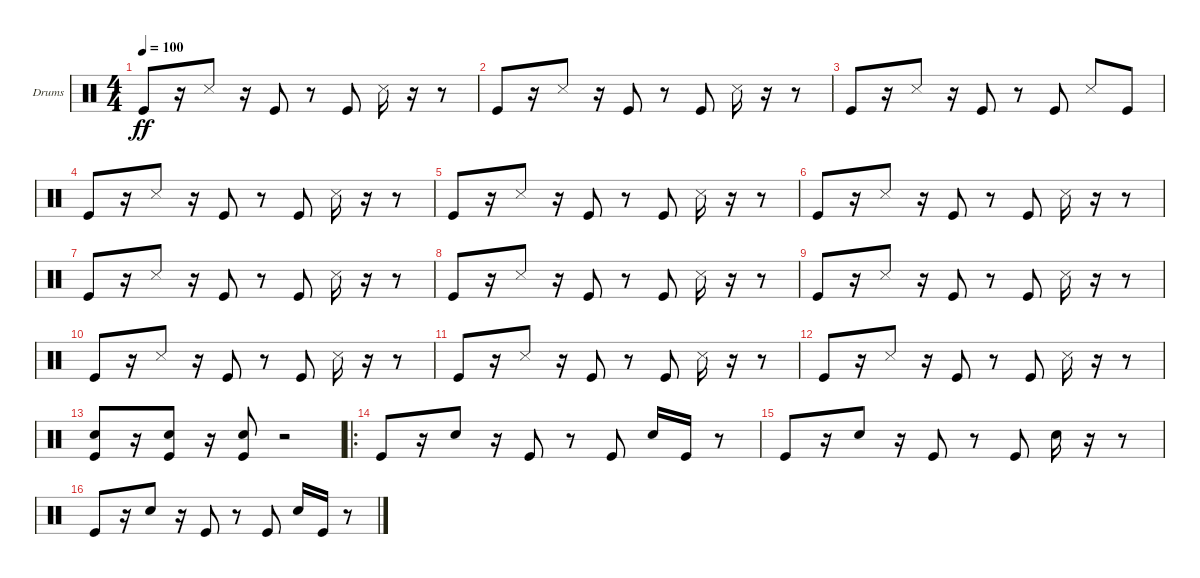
\defaultSystemsLayout 4
\bracketExtendMode groupsimilarinstruments
\firstSystemTrackNameOrientation horizontal
\otherSystemsTrackNameOrientation horizontal
\track ("Drumkit 1" "Drums") {instrument percussion}
\staff {score}
\articulation defaults
\ts (4 4)
\tempo 100
\clef neutral
\ks c "Kick (hit)".8{dy ff}
r.16 "Snare (side stick) 3".8 r.16 "Kick (hit)".8 r.8 "Kick (hit)".8 "Snare (side stick) 3".16 r.16 r.8 |
"Kick (hit)".8 r.16 "Snare (side stick) 3".8 r.16 "Kick (hit)".8 r.8 "Kick (hit)".8 "Snare (side stick) 3".16 r.16 r.8 |
"Kick (hit)".8 r.16 "Snare (side stick) 3".8 r.16 "Kick (hit)".8 r.8 "Kick (hit)".8 "Snare (side stick) 3".8 "Kick (hit)".8 |
"Kick (hit)".8 r.16 "Snare (side stick) 3".8 r.16 "Kick (hit)".8 r.8 "Kick (hit)".8 "Snare (side stick) 3".16 r.16 r.8 |
"Kick (hit)".8 r.16 "Snare (side stick) 3".8 r.16 "Kick (hit)".8 r.8 "Kick (hit)".8 "Snare (side stick) 3".16 r.16 r.8 |
"Kick (hit)".8 r.16 "Snare (side stick) 3".8 r.16 "Kick (hit)".8 r.8 "Kick (hit)".8 "Snare (side stick) 3".16 r.16 r.8 |
"Kick (hit)".8 r.16 "Snare (side stick) 3".8 r.16 "Kick (hit)".8 r.8 "Kick (hit)".8 "Snare (side stick) 3".16 r.16 r.8 |
"Kick (hit)".8 r.16 "Snare (side stick) 3".8 r.16 "Kick (hit)".8 r.8 "Kick (hit)".8 "Snare (side stick) 3".16 r.16 r.8 |
"Kick (hit)".8 r.16 "Snare (side stick) 3".8 r.16 "Kick (hit)".8 r.8 "Kick (hit)".8 "Snare (side stick) 3".16 r.16 r.8 |
"Kick (hit)".8 r.16 "Snare (side stick) 3".8 r.16 "Kick (hit)".8 r.8 "Kick (hit)".8 "Snare (side stick) 3".16 r.16 r.8 |
"Kick (hit)".8 r.16 "Snare (side stick) 3".8 r.16 "Kick (hit)".8 r.8 "Kick (hit)".8 "Snare (side stick) 3".16 r.16 r.8 |
"Kick (hit)".8 r.16 "Snare (side stick) 3".8 r.16 "Kick (hit)".8 r.8 "Kick (hit)".8 "Snare (side stick) 3".16 r.16 r.8 |
("Kick (hit)" "Snare (hit) 2").8 r.16 ("Kick (hit)" "Snare (hit) 2").8 r.16 ("Kick (hit)" "Snare (hit) 2").8 r.2 |
\ro "Kick (hit)".8
r.16 "Snare (hit) 2".8 r.16 "Kick (hit)".8 r.8 "Kick (hit)".8 "Snare (hit) 2".16 "Kick (hit)".16 r.8 |
"Kick (hit)".8 r.16 "Snare (hit) 2".8 r.16 "Kick (hit)".8 r.8 "Kick (hit)".8 "Snare (hit) 2".16 r.16 r.8 |
"Kick (hit)".8 r.16 "Snare (hit) 2".8 r.16 "Kick (hit)".8 r.8 "Kick (hit)".8 "Snare (hit) 2".16 "Kick (hit)".16 r.8
